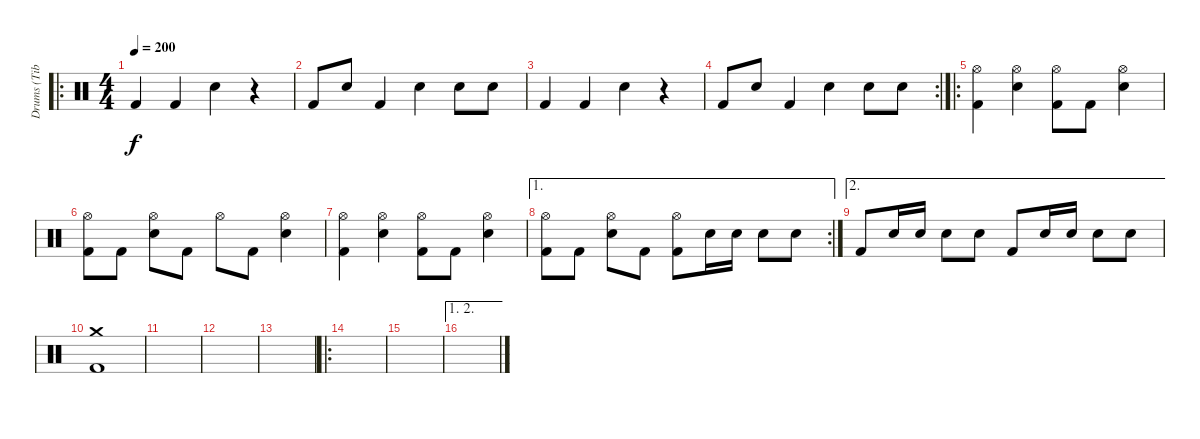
\track ("Drums (Tibcsi Kiss)" "Drums (Tib") {instrument percussion}
\staff {score}
\articulation defaults
\ro
\ts (4 4)
\tempo 200
\clef neutral
\ks c "Kick (hit) 2".4{dy f} "Kick (hit) 2".4 "Snare (hit) 2".4
r.4 |
"Kick (hit) 2".8 "Snare (hit) 2".8 "Kick (hit) 2".4 "Snare (hit) 2".4 "Snare (hit) 2".8 "Snare (hit) 2".8 |
"Kick (hit) 2".4 "Kick (hit) 2".4 "Snare (hit) 2".4 r.4 |
\rc 2 "Kick (hit) 2".8 "Snare (hit) 2".8 "Kick (hit) 2".4 "Snare (hit) 2".4 "Snare (hit) 2".8 "Snare (hit) 2".8
|
\ro
("Hi-Hat (open)" "Kick (hit) 2").4 ("Hi-Hat (open)" "Snare (hit) 2").4 ("Hi-Hat (open)" "Kick (hit) 2").8 "Kick (hit) 2".8 ("Hi-Hat (open)" "Snare (hit) 2").4 |
("Hi-Hat (open)" "Kick (hit) 2").8 "Kick (hit) 2".8 ("Hi-Hat (open)" "Snare (hit) 2").8 "Kick (hit) 2".8 "Hi-Hat (open)".8 "Kick (hit) 2".8 ("Hi-Hat (open)" "Snare (hit) 2").4 |
("Hi-Hat (open)" "Kick (hit) 2").4 ("Hi-Hat (open)" "Snare (hit) 2").4 ("Hi-Hat (open)" "Kick (hit) 2").8 "Kick (hit) 2".8 ("Hi-Hat (open)" "Snare (hit) 2").4 |
\ae 1
\rc 2
("Hi-Hat (open)" "Kick (hit) 2").8 "Kick (hit) 2".8 ("Hi-Hat (open)" "Snare (hit) 2").8 "Kick (hit) 2".8 ("Hi-Hat (open)" "Kick (hit) 2").8 "Snare (hit) 2".16 "Snare (hit) 2".16 "Snare (hit) 2".8 "Snare (hit) 2".8 |
\ae 2 "Kick (hit) 2".8 "Snare (hit) 2".16 "Snare (hit) 2".16 "Snare (hit) 2".8 "Snare (hit) 2".8 "Kick (hit) 2".8 "Snare (hit) 2".16 "Snare (hit) 2".16 "Snare (hit) 2".8 "Snare (hit) 2".8
|
("Crash medium (hit)" "Kick (hit) 2").1 |
|
|
|
\ro
|
|
\ae (1 2)
